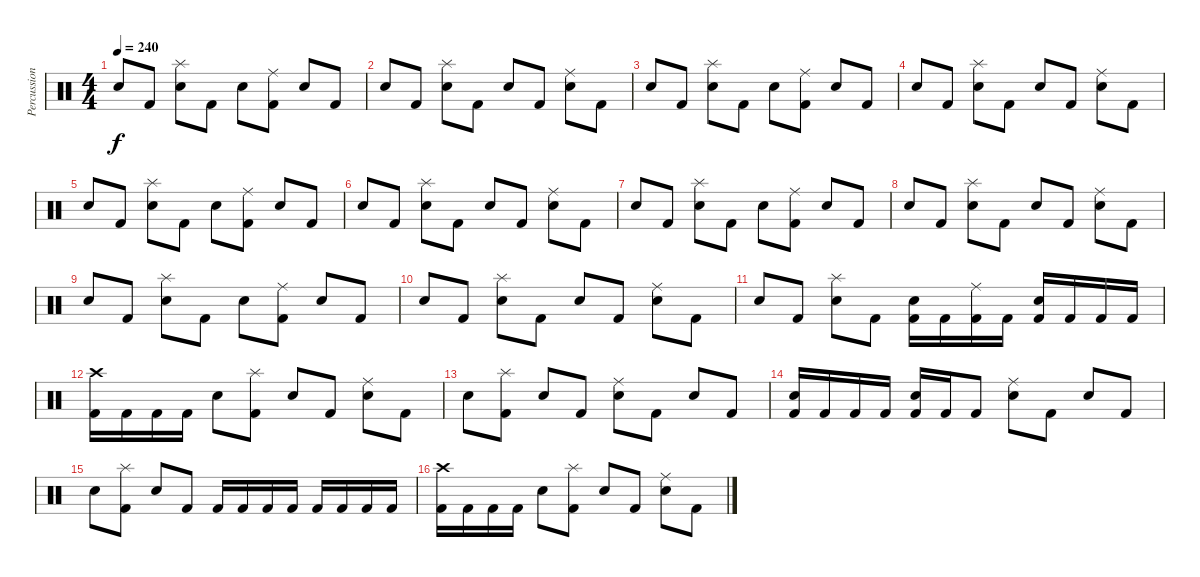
\track ("Percussion" "Percussion") {instrument percussion}
\staff {score}
\articulation defaults
\ts (4 4)
\tempo 240
\clef neutral
\ks c "Electric Snare (hit)".8{dy f} "Kick (hit) 2".8
("Electric Snare (hit)" "Splash (hit)").8 "Kick (hit) 2".8 "Electric Snare (hit)".8 ("Kick (hit) 2" "Ride (middle)").8 "Electric Snare (hit)".8 "Kick (hit) 2".8 |
"Electric Snare (hit)".8 "Kick (hit) 2".8 ("Electric Snare (hit)" "Splash (hit)").8 "Kick (hit) 2".8 "Electric Snare (hit)".8 "Kick (hit) 2".8 ("Electric Snare (hit)" "Ride (middle)").8 "Kick (hit) 2".8 |
"Electric Snare (hit)".8 "Kick (hit) 2".8 ("Electric Snare (hit)" "Splash (hit)").8 "Kick (hit) 2".8 "Electric Snare (hit)".8 ("Kick (hit) 2" "Ride (middle)").8 "Electric Snare (hit)".8 "Kick (hit) 2".8 |
"Electric Snare (hit)".8 "Kick (hit) 2".8 ("Electric Snare (hit)" "Splash (hit)").8 "Kick (hit) 2".8 "Electric Snare (hit)".8 "Kick (hit) 2".8 ("Electric Snare (hit)" "Ride (middle)").8 "Kick (hit) 2".8 |
"Electric Snare (hit)".8 "Kick (hit) 2".8 ("Electric Snare (hit)" "Splash (hit)").8 "Kick (hit) 2".8 "Electric Snare (hit)".8 ("Kick (hit) 2" "Ride (middle)").8 "Electric Snare (hit)".8 "Kick (hit) 2".8 |
"Electric Snare (hit)".8 "Kick (hit) 2".8 ("Electric Snare (hit)" "Splash (hit)").8 "Kick (hit) 2".8 "Electric Snare (hit)".8 "Kick (hit) 2".8 ("Electric Snare (hit)" "Ride (middle)").8 "Kick (hit) 2".8 |
"Electric Snare (hit)".8 "Kick (hit) 2".8 ("Electric Snare (hit)" "Splash (hit)").8 "Kick (hit) 2".8 "Electric Snare (hit)".8 ("Kick (hit) 2" "Ride (middle)").8 "Electric Snare (hit)".8 "Kick (hit) 2".8 |
"Electric Snare (hit)".8 "Kick (hit) 2".8 ("Electric Snare (hit)" "Splash (hit)").8 "Kick (hit) 2".8 "Electric Snare (hit)".8 "Kick (hit) 2".8 ("Electric Snare (hit)" "Ride (middle)").8 "Kick (hit) 2".8 |
"Electric Snare (hit)".8 "Kick (hit) 2".8 ("Electric Snare (hit)" "Splash (hit)").8 "Kick (hit) 2".8 "Electric Snare (hit)".8 ("Kick (hit) 2" "Ride (middle)").8 "Electric Snare (hit)".8 "Kick (hit) 2".8 |
"Electric Snare (hit)".8 "Kick (hit) 2".8 ("Electric Snare (hit)" "Splash (hit)").8 "Kick (hit) 2".8 "Electric Snare (hit)".8 "Kick (hit) 2".8 ("Electric Snare (hit)" "Ride (middle)").8 "Kick (hit) 2".8 |
"Electric Snare (hit)".8 "Kick (hit) 2".8 ("Electric Snare (hit)" "Splash (hit)").8 "Kick (hit) 2".8 ("Kick (hit) 2" "Electric Snare (hit)").16 "Kick (hit) 2".16 ("Kick (hit) 2" "Ride (middle)").16 "Kick (hit) 2".16 ("Kick (hit) 2" "Electric Snare (hit)").16 "Kick (hit) 2".16 "Kick (hit) 2".16 "Kick (hit) 2".16 |
("Kick (hit) 2" "Crash high (hit)").16 "Kick (hit) 2".16 "Kick (hit) 2".16 "Kick (hit) 2".16 "Electric Snare (hit)".8 ("Kick (hit) 2" "Splash (hit)").8 "Electric Snare (hit)".8 "Kick (hit) 2".8 ("Electric Snare (hit)" "Ride (middle)").8 "Kick (hit) 2".8 |
"Electric Snare (hit)".8 ("Kick (hit) 2" "Splash (hit)").8 "Electric Snare (hit)".8 "Kick (hit) 2".8 ("Electric Snare (hit)" "Ride (middle)").8 "Kick (hit) 2".8 "Electric Snare (hit)".8 "Kick (hit) 2".8 |
("Kick (hit) 2" "Electric Snare (hit)").16 "Kick (hit) 2".16 "Kick (hit) 2".16 "Kick (hit) 2".16 ("Kick (hit) 2" "Electric Snare (hit)").16 "Kick (hit) 2".16 "Kick (hit) 2".8 ("Electric Snare (hit)" "Ride (middle)").8 "Kick (hit) 2".8 "Electric Snare (hit)".8 "Kick (hit) 2".8 |
"Electric Snare (hit)".8 ("Kick (hit) 2" "Splash (hit)").8 "Electric Snare (hit)".8 "Kick (hit) 2".8 "Kick (hit) 2".16 "Kick (hit) 2".16 "Kick (hit) 2".16 "Kick (hit) 2".16 "Kick (hit) 2".16 "Kick (hit) 2".16 "Kick (hit) 2".16 "Kick (hit) 2".16 |
("Kick (hit) 2" "Crash high (hit)").16 "Kick (hit) 2".16 "Kick (hit) 2".16 "Kick (hit) 2".16 "Electric Snare (hit)".8 ("Kick (hit) 2" "Splash (hit)").8 "Electric Snare (hit)".8 "Kick (hit) 2".8 ("Electric Snare (hit)" "Ride (middle)").8 "Kick (hit) 2".8
